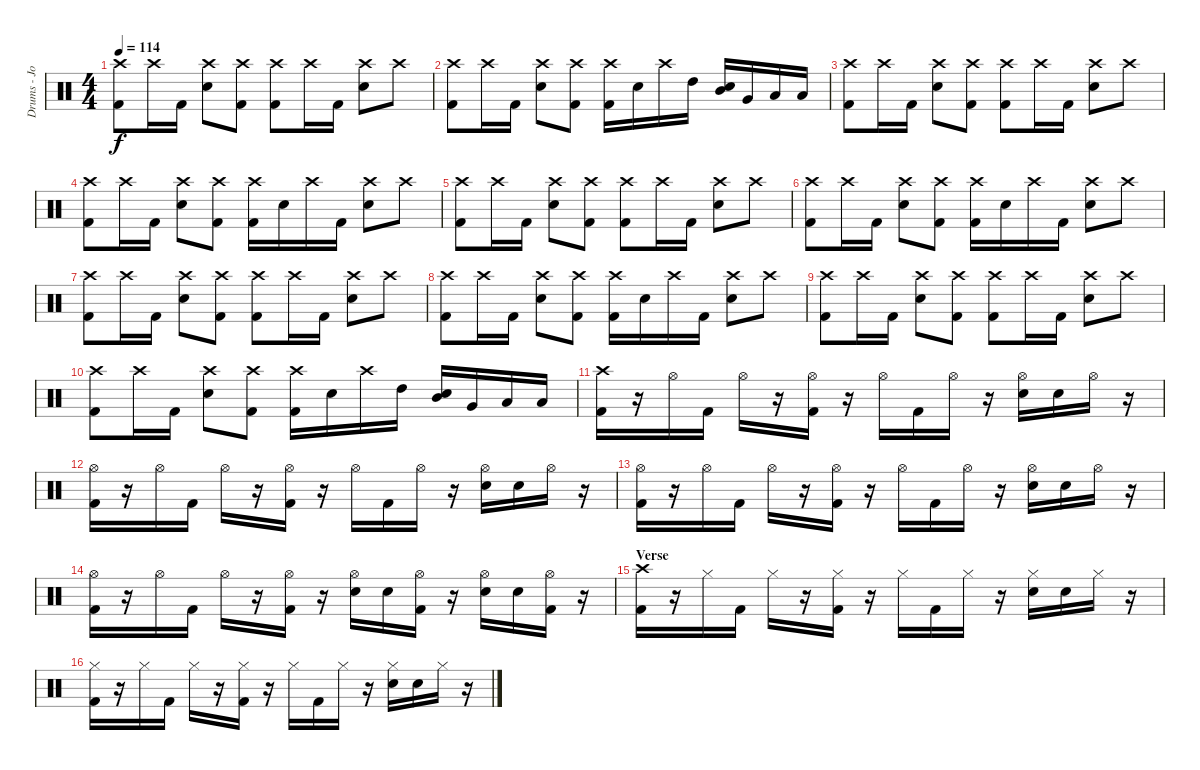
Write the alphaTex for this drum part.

\track ("Drums - Jon Wysocki" "Drums - Jo") {instrument percussion}
\staff {score}
\articulation defaults
\ts (4 4)
\tempo 114
\clef neutral
\ks c
("Crash high (hit)" "Kick (hit) 2").8{dy f} "Crash high (hit)".16 "Kick (hit) 2".16 ("Crash high (hit)" "Electric Snare (hit)").8 ("Crash high (hit)" "Kick (hit) 2").8 ("Crash high (hit)" "Kick (hit) 2").8 "Crash high (hit)".16 "Kick (hit) 2".16 ("Crash high (hit)" "Electric Snare (hit)").8 "Crash high (hit)".8 |
("Crash high (hit)" "Kick (hit) 2").8 "Crash high (hit)".16 "Kick (hit) 2".16 ("Crash high (hit)" "Electric Snare (hit)").8 ("Crash high (hit)" "Kick (hit) 2").8 ("Crash high (hit)" "Kick (hit) 2").16 "Electric Snare (hit)".16 "Crash high (hit)".16 "High Tom (hit)".16 ("Mid Tom (hit)" "Electric Snare (hit)").16 "Very Low Tom (hit)".16 "Low Tom (hit)".16 "Low Floor Tom (hit)".16 |
("Crash high (hit)" "Kick (hit) 2").8 "Crash high (hit)".16 "Kick (hit) 2".16 ("Crash high (hit)" "Electric Snare (hit)").8 ("Crash high (hit)" "Kick (hit) 2").8 ("Crash high (hit)" "Kick (hit) 2").8 "Crash high (hit)".16 "Kick (hit) 2".16 ("Crash high (hit)" "Electric Snare (hit)").8 "Crash high (hit)".8 |
("Crash high (hit)" "Kick (hit) 2").8 "Crash high (hit)".16 "Kick (hit) 2".16 ("Crash high (hit)" "Electric Snare (hit)").8 ("Crash high (hit)" "Kick (hit) 2").8 ("Crash high (hit)" "Kick (hit) 2").16 "Electric Snare (hit)".16 "Crash high (hit)".16 "Kick (hit) 2".16 ("Crash high (hit)" "Electric Snare (hit)").8 "Crash high (hit)".8 |
("Crash high (hit)" "Kick (hit) 2").8 "Crash high (hit)".16 "Kick (hit) 2".16 ("Crash high (hit)" "Electric Snare (hit)").8 ("Crash high (hit)" "Kick (hit) 2").8 ("Crash high (hit)" "Kick (hit) 2").8 "Crash high (hit)".16 "Kick (hit) 2".16 ("Crash high (hit)" "Electric Snare (hit)").8 "Crash high (hit)".8 |
("Crash high (hit)" "Kick (hit) 2").8 "Crash high (hit)".16 "Kick (hit) 2".16 ("Crash high (hit)" "Electric Snare (hit)").8 ("Crash high (hit)" "Kick (hit) 2").8 ("Crash high (hit)" "Kick (hit) 2").16 "Electric Snare (hit)".16 "Crash high (hit)".16 "Kick (hit) 2".16 ("Crash high (hit)" "Electric Snare (hit)").8 "Crash high (hit)".8 |
("Crash high (hit)" "Kick (hit) 2").8 "Crash high (hit)".16 "Kick (hit) 2".16 ("Crash high (hit)" "Electric Snare (hit)").8 ("Crash high (hit)" "Kick (hit) 2").8 ("Crash high (hit)" "Kick (hit) 2").8 "Crash high (hit)".16 "Kick (hit) 2".16 ("Crash high (hit)" "Electric Snare (hit)").8 "Crash high (hit)".8 |
("Crash high (hit)" "Kick (hit) 2").8 "Crash high (hit)".16 "Kick (hit) 2".16 ("Crash high (hit)" "Electric Snare (hit)").8 ("Crash high (hit)" "Kick (hit) 2").8 ("Crash high (hit)" "Kick (hit) 2").16 "Electric Snare (hit)".16 "Crash high (hit)".16 "Kick (hit) 2".16 ("Crash high (hit)" "Electric Snare (hit)").8 "Crash high (hit)".8 |
("Crash high (hit)" "Kick (hit) 2").8 "Crash high (hit)".16 "Kick (hit) 2".16 ("Crash high (hit)" "Electric Snare (hit)").8 ("Crash high (hit)" "Kick (hit) 2").8 ("Crash high (hit)" "Kick (hit) 2").8 "Crash high (hit)".16 "Kick (hit) 2".16 ("Crash high (hit)" "Electric Snare (hit)").8 "Crash high (hit)".8 |
("Crash high (hit)" "Kick (hit) 2").8 "Crash high (hit)".16 "Kick (hit) 2".16 ("Crash high (hit)" "Electric Snare (hit)").8 ("Crash high (hit)" "Kick (hit) 2").8 ("Crash high (hit)" "Kick (hit) 2").16 "Electric Snare (hit)".16 "Crash high (hit)".16 "High Tom (hit)".16 ("Mid Tom (hit)" "Electric Snare (hit)").16 "Very Low Tom (hit)".16 "Low Tom (hit)".16 "Low Floor Tom (hit)".16 |
("Crash high (hit)" "Kick (hit) 2").16 r.16 "Hi-Hat (open)".16 "Kick (hit) 2".16 "Hi-Hat (open)".16 r.16 ("Hi-Hat (open)" "Kick (hit) 2").16 r.16 "Hi-Hat (open)".16 "Kick (hit) 2".16 "Hi-Hat (open)".16 r.16 ("Hi-Hat (open)" "Electric Snare (hit)").16 "Electric Snare (hit)".16 "Hi-Hat (open)".16 r.16 |
("Hi-Hat (open)" "Kick (hit) 2").16 r.16 "Hi-Hat (open)".16 "Kick (hit) 2".16 "Hi-Hat (open)".16 r.16 ("Hi-Hat (open)" "Kick (hit) 2").16 r.16 "Hi-Hat (open)".16 "Kick (hit) 2".16 "Hi-Hat (open)".16 r.16 ("Hi-Hat (open)" "Electric Snare (hit)").16 "Electric Snare (hit)".16 "Hi-Hat (open)".16 r.16 |
("Hi-Hat (open)" "Kick (hit) 2").16 r.16 "Hi-Hat (open)".16 "Kick (hit) 2".16 "Hi-Hat (open)".16 r.16 ("Hi-Hat (open)" "Kick (hit) 2").16 r.16 "Hi-Hat (open)".16 "Kick (hit) 2".16 "Hi-Hat (open)".16 r.16 ("Hi-Hat (open)" "Electric Snare (hit)").16 "Electric Snare (hit)".16 "Hi-Hat (open)".16 r.16 |
("Hi-Hat (open)" "Kick (hit) 2").16 r.16 "Hi-Hat (open)".16 "Kick (hit) 2".16 "Hi-Hat (open)".16 r.16 ("Hi-Hat (open)" "Kick (hit) 2").16 r.16 ("Hi-Hat (open)" "Electric Snare (hit)").16 "Electric Snare (hit)".16 ("Hi-Hat (open)" "Kick (hit) 2").16 r.16 ("Hi-Hat (open)" "Electric Snare (hit)").16 "Electric Snare (hit)".16 ("Hi-Hat (open)" "Kick (hit) 2").16 r.16 |
\section ("" "Verse")
("Crash high (hit)" "Kick (hit) 2").16 r.16 "Hi-Hat (closed)".16 "Kick (hit) 2".16 "Hi-Hat (closed)".16 r.16 ("Hi-Hat (closed)" "Kick (hit) 2").16 r.16 "Hi-Hat (closed)".16 "Kick (hit) 2".16 "Hi-Hat (closed)".16 r.16 ("Hi-Hat (closed)" "Electric Snare (hit)").16 "Electric Snare (hit)".16 "Hi-Hat (closed)".16 r.16 |
("Hi-Hat (closed)" "Kick (hit) 2").16 r.16 "Hi-Hat (closed)".16 "Kick (hit) 2".16 "Hi-Hat (closed)".16 r.16 ("Hi-Hat (closed)" "Kick (hit) 2").16 r.16 "Hi-Hat (closed)".16 "Kick (hit) 2".16 "Hi-Hat (closed)".16 r.16 ("Hi-Hat (closed)" "Electric Snare (hit)").16 "Electric Snare (hit)".16 "Hi-Hat (closed)".16 r.16
